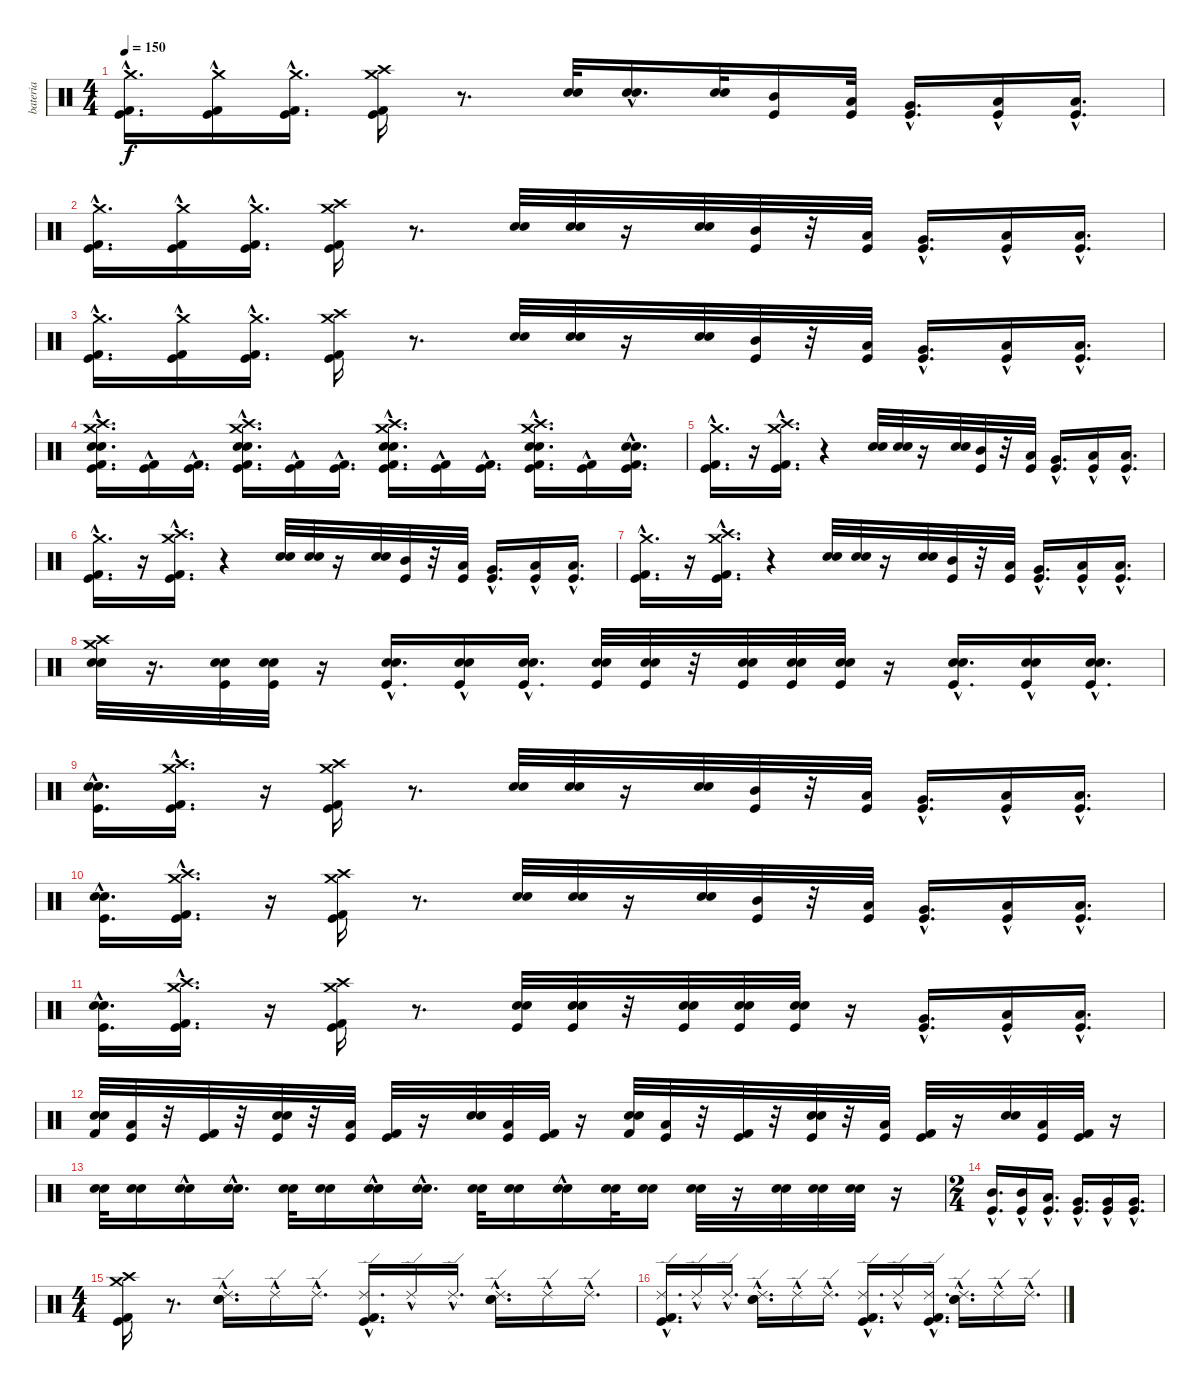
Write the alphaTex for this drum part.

\track ("bateria" "bateria") {instrument percussion}
\staff {score}
\articulation defaults
\ts (4 4)
\tempo 150
\clef neutral
\ks c
("Crash medium (hit)"{hac} "Kick (hit) 2"{hac} "Kick (hit)"{hac}).16{d dy f} ("Crash medium (hit)"{hac} "Kick (hit) 2"{hac} "Kick (hit)"{hac}).16 ("Crash medium (hit)"{hac} "Kick (hit) 2"{hac} "Kick (hit)"{hac}).16{d} ("Crash high (hit)" "Crash medium (hit)" "Kick (hit) 2" "Kick (hit)").16 r.8{d} ("Electric Snare (hit)" "Snare (hit) 2").32 ("Electric Snare (hit)"{hac} "Snare (hit) 2"{hac}).16{d} ("Electric Snare (hit)" "Snare (hit) 2").32 ("Kick (hit)" "Mid Tom (hit)").16 ("Kick (hit)" "Low Tom (hit)").32 ("Kick (hit)"{hac} "Very Low Tom (hit)"{hac}).16{d} ("Kick (hit)"{hac} "Low Floor Tom (hit)"{hac}).16 ("Kick (hit)"{hac} "Low Floor Tom (hit)"{hac}).16{d} |
("Crash medium (hit)"{hac} "Kick (hit) 2"{hac} "Kick (hit)"{hac}).16{d} ("Crash medium (hit)"{hac} "Kick (hit) 2"{hac} "Kick (hit)"{hac}).16 ("Crash medium (hit)"{hac} "Kick (hit) 2"{hac} "Kick (hit)"{hac}).16{d} ("Crash high (hit)" "Crash medium (hit)" "Kick (hit) 2" "Kick (hit)").16 r.8{d} ("Electric Snare (hit)" "Snare (hit) 2").32 ("Electric Snare (hit)" "Snare (hit) 2").32 r.16 ("Electric Snare (hit)" "Snare (hit) 2").32 ("Kick (hit)" "Mid Tom (hit)").32 r.32 ("Kick (hit)" "Low Tom (hit)").32 ("Kick (hit)"{hac} "Very Low Tom (hit)"{hac}).16{d} ("Kick (hit)"{hac} "Low Floor Tom (hit)"{hac}).16 ("Kick (hit)"{hac} "Low Floor Tom (hit)"{hac}).16{d} |
("Crash medium (hit)"{hac} "Kick (hit) 2"{hac} "Kick (hit)"{hac}).16{d} ("Crash medium (hit)"{hac} "Kick (hit) 2"{hac} "Kick (hit)"{hac}).16 ("Crash medium (hit)"{hac} "Kick (hit) 2"{hac} "Kick (hit)"{hac}).16{d} ("Crash high (hit)" "Crash medium (hit)" "Kick (hit) 2" "Kick (hit)").16 r.8{d} ("Electric Snare (hit)" "Snare (hit) 2").32 ("Electric Snare (hit)" "Snare (hit) 2").32 r.16 ("Electric Snare (hit)" "Snare (hit) 2").32 ("Kick (hit)" "Mid Tom (hit)").32 r.32 ("Kick (hit)" "Low Tom (hit)").32 ("Kick (hit)"{hac} "Very Low Tom (hit)"{hac}).16{d} ("Kick (hit)"{hac} "Low Floor Tom (hit)"{hac}).16 ("Kick (hit)"{hac} "Low Floor Tom (hit)"{hac}).16{d} |
("Crash high (hit)"{hac} "Crash medium (hit)"{hac} "Electric Snare (hit)"{hac} "Snare (hit) 2"{hac} "Kick (hit) 2"{hac} "Kick (hit)"{hac}).16{d} ("Kick (hit) 2"{hac} "Kick (hit)"{hac}).16 ("Kick (hit) 2"{hac} "Kick (hit)"{hac}).16{d} ("Crash high (hit)"{hac} "Crash medium (hit)"{hac} "Electric Snare (hit)"{hac} "Snare (hit) 2"{hac} "Kick (hit) 2"{hac} "Kick (hit)"{hac}).16{d} ("Kick (hit) 2"{hac} "Kick (hit)"{hac}).16 ("Kick (hit) 2"{hac} "Kick (hit)"{hac}).16{d} ("Crash high (hit)"{hac} "Crash medium (hit)"{hac} "Electric Snare (hit)"{hac} "Snare (hit) 2"{hac} "Kick (hit) 2"{hac} "Kick (hit)"{hac}).16{d} ("Kick (hit) 2"{hac} "Kick (hit)"{hac}).16 ("Kick (hit) 2"{hac} "Kick (hit)"{hac}).16{d} ("Crash high (hit)"{hac} "Crash medium (hit)"{hac} "Electric Snare (hit)"{hac} "Snare (hit) 2"{hac} "Kick (hit) 2"{hac} "Kick (hit)"{hac}).16{d} ("Kick (hit) 2"{hac} "Kick (hit)"{hac}).16 ("Electric Snare (hit)"{hac} "Snare (hit) 2"{hac} "Kick (hit) 2"{hac} "Kick (hit)"{hac}).16{d} |
("Crash medium (hit)"{hac} "Kick (hit) 2"{hac} "Kick (hit)"{hac}).16{d} r.16 ("Crash high (hit)"{hac} "Crash medium (hit)"{hac} "Kick (hit) 2"{hac} "Kick (hit)"{hac}).16{d} r.4 ("Electric Snare (hit)" "Snare (hit) 2").32 ("Electric Snare (hit)" "Snare (hit) 2").32 r.16 ("Electric Snare (hit)" "Snare (hit) 2").32 ("Kick (hit)" "Mid Tom (hit)").32 r.32 ("Kick (hit)" "Low Tom (hit)").32 ("Kick (hit)"{hac} "Very Low Tom (hit)"{hac}).16{d} ("Kick (hit)"{hac} "Low Floor Tom (hit)"{hac}).16 ("Kick (hit)"{hac} "Low Floor Tom (hit)"{hac}).16{d} |
("Crash medium (hit)"{hac} "Kick (hit) 2"{hac} "Kick (hit)"{hac}).16{d} r.16 ("Crash high (hit)"{hac} "Crash medium (hit)"{hac} "Kick (hit) 2"{hac} "Kick (hit)"{hac}).16{d} r.4 ("Electric Snare (hit)" "Snare (hit) 2").32 ("Electric Snare (hit)" "Snare (hit) 2").32 r.16 ("Electric Snare (hit)" "Snare (hit) 2").32 ("Kick (hit)" "Mid Tom (hit)").32 r.32 ("Kick (hit)" "Low Tom (hit)").32 ("Kick (hit)"{hac} "Very Low Tom (hit)"{hac}).16{d} ("Kick (hit)"{hac} "Low Floor Tom (hit)"{hac}).16 ("Kick (hit)"{hac} "Low Floor Tom (hit)"{hac}).16{d} |
("Crash medium (hit)"{hac} "Kick (hit) 2"{hac} "Kick (hit)"{hac}).16{d} r.16 ("Crash high (hit)"{hac} "Crash medium (hit)"{hac} "Kick (hit) 2"{hac} "Kick (hit)"{hac}).16{d} r.4 ("Electric Snare (hit)" "Snare (hit) 2").32 ("Electric Snare (hit)" "Snare (hit) 2").32 r.16 ("Electric Snare (hit)" "Snare (hit) 2").32 ("Kick (hit)" "Mid Tom (hit)").32 r.32 ("Kick (hit)" "Low Tom (hit)").32 ("Kick (hit)"{hac} "Very Low Tom (hit)"{hac}).16{d} ("Kick (hit)"{hac} "Low Floor Tom (hit)"{hac}).16 ("Kick (hit)"{hac} "Low Floor Tom (hit)"{hac}).16{d} |
("Crash high (hit)" "Crash medium (hit)" "Electric Snare (hit)" "Snare (hit) 2").32 r.16{d} ("Kick (hit)" "Electric Snare (hit)" "Snare (hit) 2").32 ("Kick (hit)" "Electric Snare (hit)" "Snare (hit) 2").32 r.16 ("Kick (hit)"{hac} "Electric Snare (hit)"{hac} "Snare (hit) 2"{hac}).16{d} ("Kick (hit)"{hac} "Electric Snare (hit)"{hac} "Snare (hit) 2"{hac}).16 ("Kick (hit)"{hac} "Electric Snare (hit)"{hac} "Snare (hit) 2"{hac}).16{d} ("Kick (hit)" "Electric Snare (hit)" "Snare (hit) 2").32 ("Kick (hit)" "Electric Snare (hit)" "Snare (hit) 2").32 r.32 ("Kick (hit)" "Electric Snare (hit)" "Snare (hit) 2").32 ("Electric Snare (hit)" "Kick (hit)" "Snare (hit) 2").32 ("Electric Snare (hit)" "Kick (hit)" "Snare (hit) 2").32 r.16 ("Kick (hit)"{hac} "Electric Snare (hit)"{hac} "Snare (hit) 2"{hac}).16{d} ("Kick (hit)"{hac} "Electric Snare (hit)"{hac} "Snare (hit) 2"{hac}).16 ("Kick (hit)"{hac} "Electric Snare (hit)"{hac} "Snare (hit) 2"{hac}).16{d} |
("Kick (hit)"{hac} "Electric Snare (hit)"{hac} "Snare (hit) 2"{hac}).16{d} ("Crash high (hit)"{hac} "Kick (hit) 2"{hac} "Crash medium (hit)"{hac} "Kick (hit)"{hac}).16{d} r.16 ("Crash medium (hit)" "Crash high (hit)" "Kick (hit) 2" "Kick (hit)").16 r.8{d} ("Electric Snare (hit)" "Snare (hit) 2").32 ("Electric Snare (hit)" "Snare (hit) 2").32 r.16 ("Electric Snare (hit)" "Snare (hit) 2").32 ("Kick (hit)" "Mid Tom (hit)").32 r.32 ("Kick (hit)" "Low Tom (hit)").32 ("Kick (hit)"{hac} "Very Low Tom (hit)"{hac}).16{d} ("Kick (hit)"{hac} "Low Floor Tom (hit)"{hac}).16 ("Kick (hit)"{hac} "Low Floor Tom (hit)"{hac}).16{d} |
("Kick (hit)"{hac} "Electric Snare (hit)"{hac} "Snare (hit) 2"{hac}).16{d} ("Crash high (hit)"{hac} "Kick (hit) 2"{hac} "Crash medium (hit)"{hac} "Kick (hit)"{hac}).16{d} r.16 ("Crash medium (hit)" "Crash high (hit)" "Kick (hit) 2" "Kick (hit)").16 r.8{d} ("Electric Snare (hit)" "Snare (hit) 2").32 ("Electric Snare (hit)" "Snare (hit) 2").32 r.16 ("Electric Snare (hit)" "Snare (hit) 2").32 ("Kick (hit)" "Mid Tom (hit)").32 r.32 ("Kick (hit)" "Low Tom (hit)").32 ("Kick (hit)"{hac} "Very Low Tom (hit)"{hac}).16{d} ("Kick (hit)"{hac} "Low Floor Tom (hit)"{hac}).16 ("Kick (hit)"{hac} "Low Floor Tom (hit)"{hac}).16{d} |
("Kick (hit)"{hac} "Electric Snare (hit)"{hac} "Snare (hit) 2"{hac}).16{d} ("Crash high (hit)"{hac} "Kick (hit) 2"{hac} "Crash medium (hit)"{hac} "Kick (hit)"{hac}).16{d} r.16 ("Crash medium (hit)" "Crash high (hit)" "Kick (hit) 2" "Kick (hit)").16 r.8{d} ("Kick (hit)" "Electric Snare (hit)" "Snare (hit) 2").32 ("Electric Snare (hit)" "Snare (hit) 2" "Kick (hit)").32 r.32 ("Kick (hit)" "Electric Snare (hit)" "Snare (hit) 2").32 ("Kick (hit)" "Electric Snare (hit)" "Snare (hit) 2").32 ("Kick (hit)" "Electric Snare (hit)" "Snare (hit) 2").32 r.16 ("Kick (hit)"{hac} "Very Low Tom (hit)"{hac}).16{d} ("Kick (hit)"{hac} "Low Floor Tom (hit)"{hac}).16 ("Kick (hit)"{hac} "Low Floor Tom (hit)"{hac}).16{d} |
("Kick (hit) 2" "Electric Snare (hit)" "Snare (hit) 2").32 ("Kick (hit)" "Low Tom (hit)").32 r.32 ("Kick (hit) 2" "Kick (hit)").32 r.32 ("Electric Snare (hit)" "Snare (hit) 2" "Kick (hit)").32 r.32 ("Low Tom (hit)" "Kick (hit)").32 ("Kick (hit) 2" "Kick (hit)").32 r.16 ("Electric Snare (hit)" "Snare (hit) 2").32 ("Low Tom (hit)" "Kick (hit)").32 ("Kick (hit) 2" "Kick (hit)").32 r.16 ("Kick (hit) 2" "Electric Snare (hit)" "Snare (hit) 2").32 ("Kick (hit)" "Low Tom (hit)").32 r.32 ("Kick (hit) 2" "Kick (hit)").32 r.32 ("Electric Snare (hit)" "Snare (hit) 2" "Kick (hit)").32 r.32 ("Low Tom (hit)" "Kick (hit)").32 ("Kick (hit) 2" "Kick (hit)").32 r.16 ("Electric Snare (hit)" "Snare (hit) 2").32 ("Low Tom (hit)" "Kick (hit)").32 ("Kick (hit) 2" "Kick (hit)").32 r.16 |
("Electric Snare (hit)" "Snare (hit) 2").32 ("Electric Snare (hit)" "Snare (hit) 2").16 ("Electric Snare (hit)"{hac} "Snare (hit) 2"{hac}).16 ("Electric Snare (hit)"{hac} "Snare (hit) 2"{hac}).16{d} ("Electric Snare (hit)" "Snare (hit) 2").32 ("Electric Snare (hit)" "Snare (hit) 2").16 ("Electric Snare (hit)"{hac} "Snare (hit) 2"{hac}).16 ("Electric Snare (hit)"{hac} "Snare (hit) 2"{hac}).16{d} ("Electric Snare (hit)" "Snare (hit) 2").32 ("Electric Snare (hit)" "Snare (hit) 2").16 ("Electric Snare (hit)"{hac} "Snare (hit) 2"{hac}).16 ("Electric Snare (hit)" "Snare (hit) 2").32 ("Electric Snare (hit)" "Snare (hit) 2").16 ("Electric Snare (hit)" "Snare (hit) 2").32 r.16 ("Electric Snare (hit)" "Snare (hit) 2").32 ("Electric Snare (hit)" "Snare (hit) 2").32 ("Electric Snare (hit)" "Snare (hit) 2").32 r.16 |
\ts (2 4)
("Kick (hit)"{hac} "Mid Tom (hit)"{hac}).16{d} ("Kick (hit)"{hac} "Mid Tom (hit)"{hac}).16 ("Low Tom (hit)"{hac} "Kick (hit)"{hac}).16{d} ("Kick (hit)"{hac} "Very Low Tom (hit)"{hac}).16{d} ("Very Low Tom (hit)"{hac} "Kick (hit)"{hac}).16 ("Kick (hit)"{hac} "Very Low Tom (hit)"{hac}).16{d} |
\ts (4 4)
("Crash high (hit)" "Crash medium (hit)" "Kick (hit) 2" "Kick (hit)").16 r.8{d} ("Ride (edge) 2"{hac} "Electric Snare (hit)"{hac} "Snare (hit) 2"{hac}).16{d} "Ride (edge) 2"{hac}.16 "Ride (edge) 2"{hac}.16{d} ("Ride (edge) 2"{hac} "Kick (hit) 2"{hac} "Kick (hit)"{hac}).16{d} "Ride (edge) 2"{hac}.16 "Ride (edge) 2"{hac}.16{d} ("Ride (edge) 2"{hac} "Electric Snare (hit)"{hac} "Snare (hit) 2"{hac}).16{d} "Ride (edge) 2"{hac}.16 "Ride (edge) 2"{hac}.16{d} |
("Kick (hit) 2"{hac} "Kick (hit)"{hac} "Ride (edge) 2"{hac}).16{d} "Ride (edge) 2"{hac}.16 "Ride (edge) 2"{hac}.16{d} ("Electric Snare (hit)"{hac} "Snare (hit) 2"{hac} "Ride (edge) 2"{hac}).16{d} "Ride (edge) 2"{hac}.16 "Ride (edge) 2"{hac}.16{d} ("Kick (hit) 2"{hac} "Kick (hit)"{hac} "Ride (edge) 2"{hac}).16{d} "Ride (edge) 2"{hac}.16 ("Kick (hit)"{hac} "Kick (hit) 2"{hac} "Ride (edge) 2"{hac}).16{d} ("Electric Snare (hit)"{hac} "Snare (hit) 2"{hac} "Ride (edge) 2"{hac}).16{d} "Ride (edge) 2"{hac}.16 "Ride (edge) 2"{hac}.16{d}
